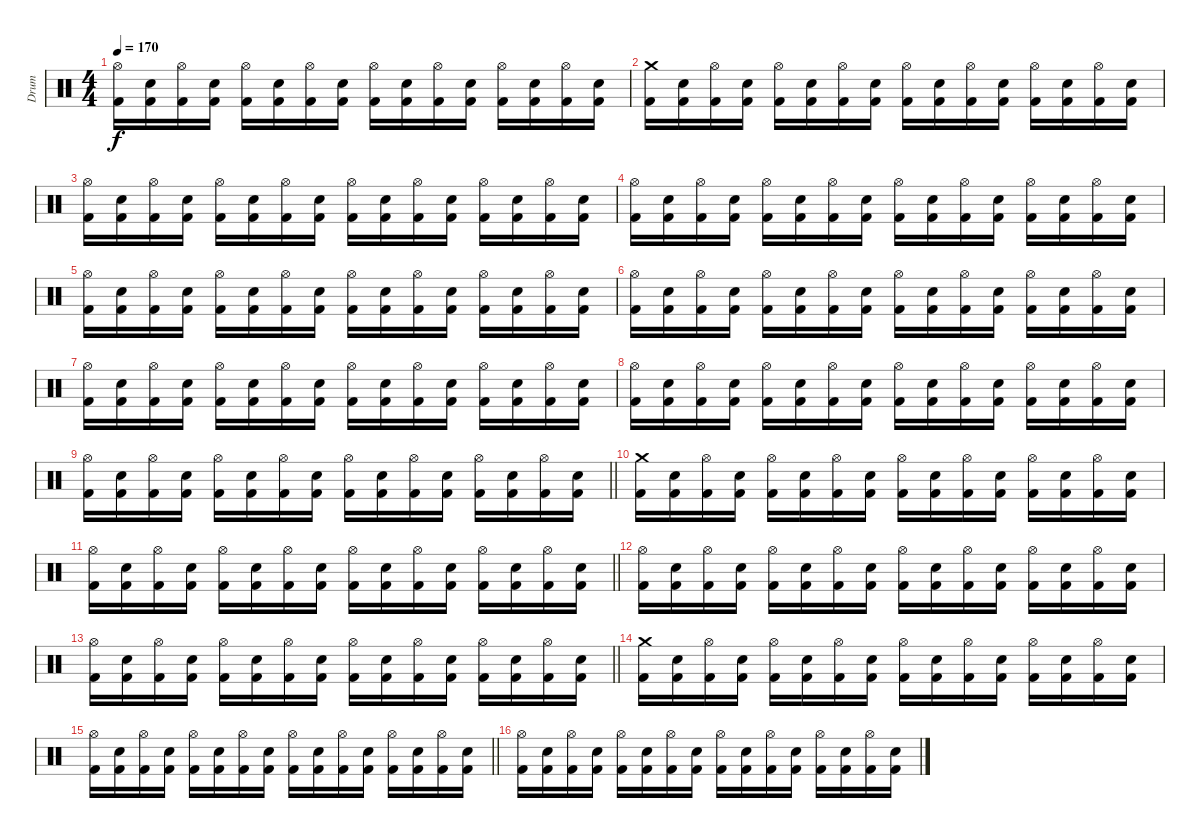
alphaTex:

\track ("Drum" "Drum") {instrument percussion}
\staff {score}
\articulation defaults
\ts (4 4)
\tempo 170
\clef neutral
\ks c
("Hi-Hat (open)" "Kick (hit) 2").16{dy f} ("Snare (hit) 2" "Kick (hit) 2").16 ("Hi-Hat (open)" "Kick (hit) 2").16 ("Snare (hit) 2" "Kick (hit) 2").16 ("Hi-Hat (open)" "Kick (hit) 2").16 ("Snare (hit) 2" "Kick (hit) 2").16 ("Hi-Hat (open)" "Kick (hit) 2").16 ("Snare (hit) 2" "Kick (hit) 2").16 ("Hi-Hat (open)" "Kick (hit) 2").16 ("Snare (hit) 2" "Kick (hit) 2").16 ("Hi-Hat (open)" "Kick (hit) 2").16 ("Snare (hit) 2" "Kick (hit) 2").16 ("Hi-Hat (open)" "Kick (hit) 2").16 ("Snare (hit) 2" "Kick (hit) 2").16 ("Hi-Hat (open)" "Kick (hit) 2").16 ("Snare (hit) 2" "Kick (hit) 2").16 |
("Crash medium (hit)" "Kick (hit) 2").16 ("Snare (hit) 2" "Kick (hit) 2").16 ("Hi-Hat (open)" "Kick (hit) 2").16 ("Snare (hit) 2" "Kick (hit) 2").16 ("Hi-Hat (open)" "Kick (hit) 2").16 ("Snare (hit) 2" "Kick (hit) 2").16 ("Hi-Hat (open)" "Kick (hit) 2").16 ("Snare (hit) 2" "Kick (hit) 2").16 ("Hi-Hat (open)" "Kick (hit) 2").16 ("Snare (hit) 2" "Kick (hit) 2").16 ("Hi-Hat (open)" "Kick (hit) 2").16 ("Snare (hit) 2" "Kick (hit) 2").16 ("Hi-Hat (open)" "Kick (hit) 2").16 ("Snare (hit) 2" "Kick (hit) 2").16 ("Hi-Hat (open)" "Kick (hit) 2").16 ("Snare (hit) 2" "Kick (hit) 2").16 |
("Hi-Hat (open)" "Kick (hit) 2").16 ("Snare (hit) 2" "Kick (hit) 2").16 ("Hi-Hat (open)" "Kick (hit) 2").16 ("Snare (hit) 2" "Kick (hit) 2").16 ("Hi-Hat (open)" "Kick (hit) 2").16 ("Snare (hit) 2" "Kick (hit) 2").16 ("Hi-Hat (open)" "Kick (hit) 2").16 ("Snare (hit) 2" "Kick (hit) 2").16 ("Hi-Hat (open)" "Kick (hit) 2").16 ("Snare (hit) 2" "Kick (hit) 2").16 ("Hi-Hat (open)" "Kick (hit) 2").16 ("Snare (hit) 2" "Kick (hit) 2").16 ("Hi-Hat (open)" "Kick (hit) 2").16 ("Snare (hit) 2" "Kick (hit) 2").16 ("Hi-Hat (open)" "Kick (hit) 2").16 ("Snare (hit) 2" "Kick (hit) 2").16 |
("Hi-Hat (open)" "Kick (hit) 2").16 ("Snare (hit) 2" "Kick (hit) 2").16 ("Hi-Hat (open)" "Kick (hit) 2").16 ("Snare (hit) 2" "Kick (hit) 2").16 ("Hi-Hat (open)" "Kick (hit) 2").16 ("Snare (hit) 2" "Kick (hit) 2").16 ("Hi-Hat (open)" "Kick (hit) 2").16 ("Snare (hit) 2" "Kick (hit) 2").16 ("Hi-Hat (open)" "Kick (hit) 2").16 ("Snare (hit) 2" "Kick (hit) 2").16 ("Hi-Hat (open)" "Kick (hit) 2").16 ("Snare (hit) 2" "Kick (hit) 2").16 ("Hi-Hat (open)" "Kick (hit) 2").16 ("Snare (hit) 2" "Kick (hit) 2").16 ("Hi-Hat (open)" "Kick (hit) 2").16 ("Snare (hit) 2" "Kick (hit) 2").16 |
("Hi-Hat (open)" "Kick (hit) 2").16 ("Snare (hit) 2" "Kick (hit) 2").16 ("Hi-Hat (open)" "Kick (hit) 2").16 ("Snare (hit) 2" "Kick (hit) 2").16 ("Hi-Hat (open)" "Kick (hit) 2").16 ("Snare (hit) 2" "Kick (hit) 2").16 ("Hi-Hat (open)" "Kick (hit) 2").16 ("Snare (hit) 2" "Kick (hit) 2").16 ("Hi-Hat (open)" "Kick (hit) 2").16 ("Snare (hit) 2" "Kick (hit) 2").16 ("Hi-Hat (open)" "Kick (hit) 2").16 ("Snare (hit) 2" "Kick (hit) 2").16 ("Hi-Hat (open)" "Kick (hit) 2").16 ("Snare (hit) 2" "Kick (hit) 2").16 ("Hi-Hat (open)" "Kick (hit) 2").16 ("Snare (hit) 2" "Kick (hit) 2").16 |
("Hi-Hat (open)" "Kick (hit) 2").16 ("Snare (hit) 2" "Kick (hit) 2").16 ("Hi-Hat (open)" "Kick (hit) 2").16 ("Snare (hit) 2" "Kick (hit) 2").16 ("Hi-Hat (open)" "Kick (hit) 2").16 ("Snare (hit) 2" "Kick (hit) 2").16 ("Hi-Hat (open)" "Kick (hit) 2").16 ("Snare (hit) 2" "Kick (hit) 2").16 ("Hi-Hat (open)" "Kick (hit) 2").16 ("Snare (hit) 2" "Kick (hit) 2").16 ("Hi-Hat (open)" "Kick (hit) 2").16 ("Snare (hit) 2" "Kick (hit) 2").16 ("Hi-Hat (open)" "Kick (hit) 2").16 ("Snare (hit) 2" "Kick (hit) 2").16 ("Hi-Hat (open)" "Kick (hit) 2").16 ("Snare (hit) 2" "Kick (hit) 2").16 |
("Hi-Hat (open)" "Kick (hit) 2").16 ("Snare (hit) 2" "Kick (hit) 2").16 ("Hi-Hat (open)" "Kick (hit) 2").16 ("Snare (hit) 2" "Kick (hit) 2").16 ("Hi-Hat (open)" "Kick (hit) 2").16 ("Snare (hit) 2" "Kick (hit) 2").16 ("Hi-Hat (open)" "Kick (hit) 2").16 ("Snare (hit) 2" "Kick (hit) 2").16 ("Hi-Hat (open)" "Kick (hit) 2").16 ("Snare (hit) 2" "Kick (hit) 2").16 ("Hi-Hat (open)" "Kick (hit) 2").16 ("Snare (hit) 2" "Kick (hit) 2").16 ("Hi-Hat (open)" "Kick (hit) 2").16 ("Snare (hit) 2" "Kick (hit) 2").16 ("Hi-Hat (open)" "Kick (hit) 2").16 ("Snare (hit) 2" "Kick (hit) 2").16 |
("Hi-Hat (open)" "Kick (hit) 2").16 ("Snare (hit) 2" "Kick (hit) 2").16 ("Hi-Hat (open)" "Kick (hit) 2").16 ("Snare (hit) 2" "Kick (hit) 2").16 ("Hi-Hat (open)" "Kick (hit) 2").16 ("Snare (hit) 2" "Kick (hit) 2").16 ("Hi-Hat (open)" "Kick (hit) 2").16 ("Snare (hit) 2" "Kick (hit) 2").16 ("Hi-Hat (open)" "Kick (hit) 2").16 ("Snare (hit) 2" "Kick (hit) 2").16 ("Hi-Hat (open)" "Kick (hit) 2").16 ("Snare (hit) 2" "Kick (hit) 2").16 ("Hi-Hat (open)" "Kick (hit) 2").16 ("Snare (hit) 2" "Kick (hit) 2").16 ("Hi-Hat (open)" "Kick (hit) 2").16 ("Snare (hit) 2" "Kick (hit) 2").16 |
\barLineRight lightlight
("Hi-Hat (open)" "Kick (hit) 2").16 ("Snare (hit) 2" "Kick (hit) 2").16 ("Hi-Hat (open)" "Kick (hit) 2").16 ("Snare (hit) 2" "Kick (hit) 2").16 ("Hi-Hat (open)" "Kick (hit) 2").16 ("Snare (hit) 2" "Kick (hit) 2").16 ("Hi-Hat (open)" "Kick (hit) 2").16 ("Snare (hit) 2" "Kick (hit) 2").16 ("Hi-Hat (open)" "Kick (hit) 2").16 ("Snare (hit) 2" "Kick (hit) 2").16 ("Hi-Hat (open)" "Kick (hit) 2").16 ("Snare (hit) 2" "Kick (hit) 2").16 ("Hi-Hat (open)" "Kick (hit) 2").16 ("Snare (hit) 2" "Kick (hit) 2").16 ("Hi-Hat (open)" "Kick (hit) 2").16 ("Snare (hit) 2" "Kick (hit) 2").16 |
("Crash medium (hit)" "Kick (hit) 2").16 ("Snare (hit) 2" "Kick (hit) 2").16 ("Hi-Hat (open)" "Kick (hit) 2").16 ("Snare (hit) 2" "Kick (hit) 2").16 ("Hi-Hat (open)" "Kick (hit) 2").16 ("Snare (hit) 2" "Kick (hit) 2").16 ("Hi-Hat (open)" "Kick (hit) 2").16 ("Snare (hit) 2" "Kick (hit) 2").16 ("Hi-Hat (open)" "Kick (hit) 2").16 ("Snare (hit) 2" "Kick (hit) 2").16 ("Hi-Hat (open)" "Kick (hit) 2").16 ("Snare (hit) 2" "Kick (hit) 2").16 ("Hi-Hat (open)" "Kick (hit) 2").16 ("Snare (hit) 2" "Kick (hit) 2").16 ("Hi-Hat (open)" "Kick (hit) 2").16 ("Snare (hit) 2" "Kick (hit) 2").16 |
\barLineRight lightlight
("Hi-Hat (open)" "Kick (hit) 2").16 ("Snare (hit) 2" "Kick (hit) 2").16 ("Hi-Hat (open)" "Kick (hit) 2").16 ("Snare (hit) 2" "Kick (hit) 2").16 ("Hi-Hat (open)" "Kick (hit) 2").16 ("Snare (hit) 2" "Kick (hit) 2").16 ("Hi-Hat (open)" "Kick (hit) 2").16 ("Snare (hit) 2" "Kick (hit) 2").16 ("Hi-Hat (open)" "Kick (hit) 2").16 ("Snare (hit) 2" "Kick (hit) 2").16 ("Hi-Hat (open)" "Kick (hit) 2").16 ("Snare (hit) 2" "Kick (hit) 2").16 ("Hi-Hat (open)" "Kick (hit) 2").16 ("Snare (hit) 2" "Kick (hit) 2").16 ("Hi-Hat (open)" "Kick (hit) 2").16 ("Snare (hit) 2" "Kick (hit) 2").16 |
("Hi-Hat (open)" "Kick (hit) 2").16 ("Snare (hit) 2" "Kick (hit) 2").16 ("Hi-Hat (open)" "Kick (hit) 2").16 ("Snare (hit) 2" "Kick (hit) 2").16 ("Hi-Hat (open)" "Kick (hit) 2").16 ("Snare (hit) 2" "Kick (hit) 2").16 ("Hi-Hat (open)" "Kick (hit) 2").16 ("Snare (hit) 2" "Kick (hit) 2").16 ("Hi-Hat (open)" "Kick (hit) 2").16 ("Snare (hit) 2" "Kick (hit) 2").16 ("Hi-Hat (open)" "Kick (hit) 2").16 ("Snare (hit) 2" "Kick (hit) 2").16 ("Hi-Hat (open)" "Kick (hit) 2").16 ("Snare (hit) 2" "Kick (hit) 2").16 ("Hi-Hat (open)" "Kick (hit) 2").16 ("Snare (hit) 2" "Kick (hit) 2").16 |
\barLineRight lightlight
("Hi-Hat (open)" "Kick (hit) 2").16 ("Snare (hit) 2" "Kick (hit) 2").16 ("Hi-Hat (open)" "Kick (hit) 2").16 ("Snare (hit) 2" "Kick (hit) 2").16 ("Hi-Hat (open)" "Kick (hit) 2").16 ("Snare (hit) 2" "Kick (hit) 2").16 ("Hi-Hat (open)" "Kick (hit) 2").16 ("Snare (hit) 2" "Kick (hit) 2").16 ("Hi-Hat (open)" "Kick (hit) 2").16 ("Snare (hit) 2" "Kick (hit) 2").16 ("Hi-Hat (open)" "Kick (hit) 2").16 ("Snare (hit) 2" "Kick (hit) 2").16 ("Hi-Hat (open)" "Kick (hit) 2").16 ("Snare (hit) 2" "Kick (hit) 2").16 ("Hi-Hat (open)" "Kick (hit) 2").16 ("Snare (hit) 2" "Kick (hit) 2").16 |
("Crash medium (hit)" "Kick (hit) 2").16 ("Snare (hit) 2" "Kick (hit) 2").16 ("Hi-Hat (open)" "Kick (hit) 2").16 ("Snare (hit) 2" "Kick (hit) 2").16 ("Hi-Hat (open)" "Kick (hit) 2").16 ("Snare (hit) 2" "Kick (hit) 2").16 ("Hi-Hat (open)" "Kick (hit) 2").16 ("Snare (hit) 2" "Kick (hit) 2").16 ("Hi-Hat (open)" "Kick (hit) 2").16 ("Snare (hit) 2" "Kick (hit) 2").16 ("Hi-Hat (open)" "Kick (hit) 2").16 ("Snare (hit) 2" "Kick (hit) 2").16 ("Hi-Hat (open)" "Kick (hit) 2").16 ("Snare (hit) 2" "Kick (hit) 2").16 ("Hi-Hat (open)" "Kick (hit) 2").16 ("Snare (hit) 2" "Kick (hit) 2").16 |
\barLineRight lightlight
("Hi-Hat (open)" "Kick (hit) 2").16 ("Snare (hit) 2" "Kick (hit) 2").16 ("Hi-Hat (open)" "Kick (hit) 2").16 ("Snare (hit) 2" "Kick (hit) 2").16 ("Hi-Hat (open)" "Kick (hit) 2").16 ("Snare (hit) 2" "Kick (hit) 2").16 ("Hi-Hat (open)" "Kick (hit) 2").16 ("Snare (hit) 2" "Kick (hit) 2").16 ("Hi-Hat (open)" "Kick (hit) 2").16 ("Snare (hit) 2" "Kick (hit) 2").16 ("Hi-Hat (open)" "Kick (hit) 2").16 ("Snare (hit) 2" "Kick (hit) 2").16 ("Hi-Hat (open)" "Kick (hit) 2").16 ("Snare (hit) 2" "Kick (hit) 2").16 ("Hi-Hat (open)" "Kick (hit) 2").16 ("Snare (hit) 2" "Kick (hit) 2").16 |
("Hi-Hat (open)" "Kick (hit) 2").16 ("Snare (hit) 2" "Kick (hit) 2").16 ("Hi-Hat (open)" "Kick (hit) 2").16 ("Snare (hit) 2" "Kick (hit) 2").16 ("Hi-Hat (open)" "Kick (hit) 2").16 ("Snare (hit) 2" "Kick (hit) 2").16 ("Hi-Hat (open)" "Kick (hit) 2").16 ("Snare (hit) 2" "Kick (hit) 2").16 ("Hi-Hat (open)" "Kick (hit) 2").16 ("Snare (hit) 2" "Kick (hit) 2").16 ("Hi-Hat (open)" "Kick (hit) 2").16 ("Snare (hit) 2" "Kick (hit) 2").16 ("Hi-Hat (open)" "Kick (hit) 2").16 ("Snare (hit) 2" "Kick (hit) 2").16 ("Hi-Hat (open)" "Kick (hit) 2").16 ("Snare (hit) 2" "Kick (hit) 2").16
